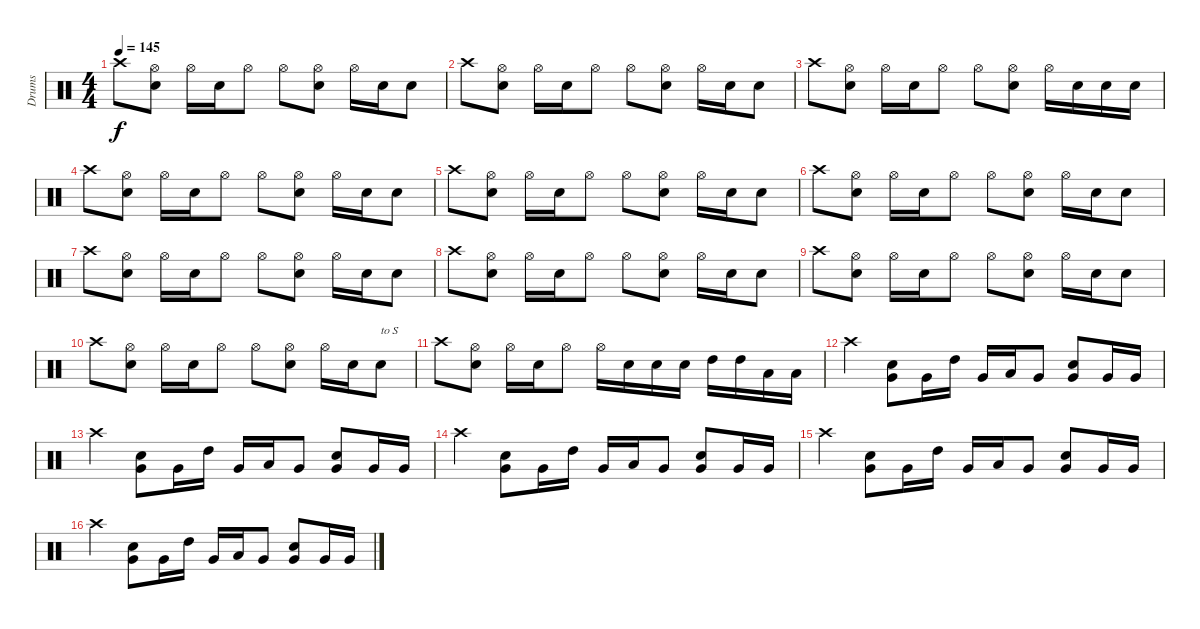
\track ("Drums" "Drums") {instrument percussion}
\staff {score}
\articulation defaults
\ts (4 4)
\tempo 145
\clef neutral
\ks c "Crash high (hit)".8{dy f}
("Hi-Hat (open)" "Snare (hit) 2").8 "Hi-Hat (open)".16 "Snare (hit) 2".16 "Hi-Hat (open)".8 "Hi-Hat (open)".8 ("Hi-Hat (open)" "Snare (hit) 2").8 "Hi-Hat (open)".16 "Snare (hit) 2".16 "Snare (hit) 2".8 |
"Crash high (hit)".8 ("Hi-Hat (open)" "Snare (hit) 2").8 "Hi-Hat (open)".16 "Snare (hit) 2".16 "Hi-Hat (open)".8 "Hi-Hat (open)".8 ("Hi-Hat (open)" "Snare (hit) 2").8 "Hi-Hat (open)".16 "Snare (hit) 2".16 "Snare (hit) 2".8 |
"Crash high (hit)".8 ("Hi-Hat (open)" "Snare (hit) 2").8 "Hi-Hat (open)".16 "Snare (hit) 2".16 "Hi-Hat (open)".8 "Hi-Hat (open)".8 ("Hi-Hat (open)" "Snare (hit) 2").8 "Hi-Hat (open)".16 "Snare (hit) 2".16 "Snare (hit) 2".16 "Snare (hit) 2".16 |
"Crash high (hit)".8 ("Hi-Hat (open)" "Snare (hit) 2").8 "Hi-Hat (open)".16 "Snare (hit) 2".16 "Hi-Hat (open)".8 "Hi-Hat (open)".8 ("Hi-Hat (open)" "Snare (hit) 2").8 "Hi-Hat (open)".16 "Snare (hit) 2".16 "Snare (hit) 2".8 |
"Crash high (hit)".8 ("Hi-Hat (open)" "Snare (hit) 2").8 "Hi-Hat (open)".16 "Snare (hit) 2".16 "Hi-Hat (open)".8 "Hi-Hat (open)".8 ("Hi-Hat (open)" "Snare (hit) 2").8 "Hi-Hat (open)".16 "Snare (hit) 2".16 "Snare (hit) 2".8 |
"Crash high (hit)".8 ("Hi-Hat (open)" "Snare (hit) 2").8 "Hi-Hat (open)".16 "Snare (hit) 2".16 "Hi-Hat (open)".8 "Hi-Hat (open)".8 ("Hi-Hat (open)" "Snare (hit) 2").8 "Hi-Hat (open)".16 "Snare (hit) 2".16 "Snare (hit) 2".8 |
"Crash high (hit)".8 ("Hi-Hat (open)" "Snare (hit) 2").8 "Hi-Hat (open)".16 "Snare (hit) 2".16 "Hi-Hat (open)".8 "Hi-Hat (open)".8 ("Hi-Hat (open)" "Snare (hit) 2").8 "Hi-Hat (open)".16 "Snare (hit) 2".16 "Snare (hit) 2".8 |
"Crash high (hit)".8 ("Hi-Hat (open)" "Snare (hit) 2").8 "Hi-Hat (open)".16 "Snare (hit) 2".16 "Hi-Hat (open)".8 "Hi-Hat (open)".8 ("Hi-Hat (open)" "Snare (hit) 2").8 "Hi-Hat (open)".16 "Snare (hit) 2".16 "Snare (hit) 2".8 |
"Crash high (hit)".8 ("Hi-Hat (open)" "Snare (hit) 2").8 "Hi-Hat (open)".16 "Snare (hit) 2".16 "Hi-Hat (open)".8 "Hi-Hat (open)".8 ("Hi-Hat (open)" "Snare (hit) 2").8 "Hi-Hat (open)".16 "Snare (hit) 2".16 "Snare (hit) 2".8 |
"Crash high (hit)".8 ("Hi-Hat (open)" "Snare (hit) 2").8 "Hi-Hat (open)".16 "Snare (hit) 2".16 "Hi-Hat (open)".8 "Hi-Hat (open)".8 ("Hi-Hat (open)" "Snare (hit) 2").8 "Hi-Hat (open)".16 "Snare (hit) 2".16 "Snare (hit) 2".8{txt "to S"} |
"Crash high (hit)".8 ("Hi-Hat (open)" "Snare (hit) 2").8 "Hi-Hat (open)".16 "Snare (hit) 2".16 "Hi-Hat (open)".8 "Hi-Hat (open)".16 "Snare (hit) 2".16 "Snare (hit) 2".16 "Snare (hit) 2".16 "High Tom (hit)".16 "High Tom (hit)".16 "Low Tom (hit)".16 "Low Tom (hit)".16 |
"Crash high (hit)".4 ("Snare (hit) 2" "Very Low Tom (hit)").8 "Very Low Tom (hit)".16 "High Tom (hit)".16 "Very Low Tom (hit)".16 "Low Tom (hit)".16 "Very Low Tom (hit)".8 ("Snare (hit) 2" "Very Low Tom (hit)").8 "Very Low Tom (hit)".16 "Very Low Tom (hit)".16 |
"Crash high (hit)".4 ("Snare (hit) 2" "Very Low Tom (hit)").8 "Very Low Tom (hit)".16 "High Tom (hit)".16 "Very Low Tom (hit)".16 "Low Tom (hit)".16 "Very Low Tom (hit)".8 ("Snare (hit) 2" "Very Low Tom (hit)").8 "Very Low Tom (hit)".16 "Very Low Tom (hit)".16 |
"Crash high (hit)".4 ("Snare (hit) 2" "Very Low Tom (hit)").8 "Very Low Tom (hit)".16 "High Tom (hit)".16 "Very Low Tom (hit)".16 "Low Tom (hit)".16 "Very Low Tom (hit)".8 ("Snare (hit) 2" "Very Low Tom (hit)").8 "Very Low Tom (hit)".16 "Very Low Tom (hit)".16 |
"Crash high (hit)".4 ("Snare (hit) 2" "Very Low Tom (hit)").8 "Very Low Tom (hit)".16 "High Tom (hit)".16 "Very Low Tom (hit)".16 "Low Tom (hit)".16 "Very Low Tom (hit)".8 ("Snare (hit) 2" "Very Low Tom (hit)").8 "Very Low Tom (hit)".16 "Very Low Tom (hit)".16 |
"Crash high (hit)".4 ("Snare (hit) 2" "Very Low Tom (hit)").8 "Very Low Tom (hit)".16 "High Tom (hit)".16 "Very Low Tom (hit)".16 "Low Tom (hit)".16 "Very Low Tom (hit)".8 ("Snare (hit) 2" "Very Low Tom (hit)").8 "Very Low Tom (hit)".16 "Very Low Tom (hit)".16
